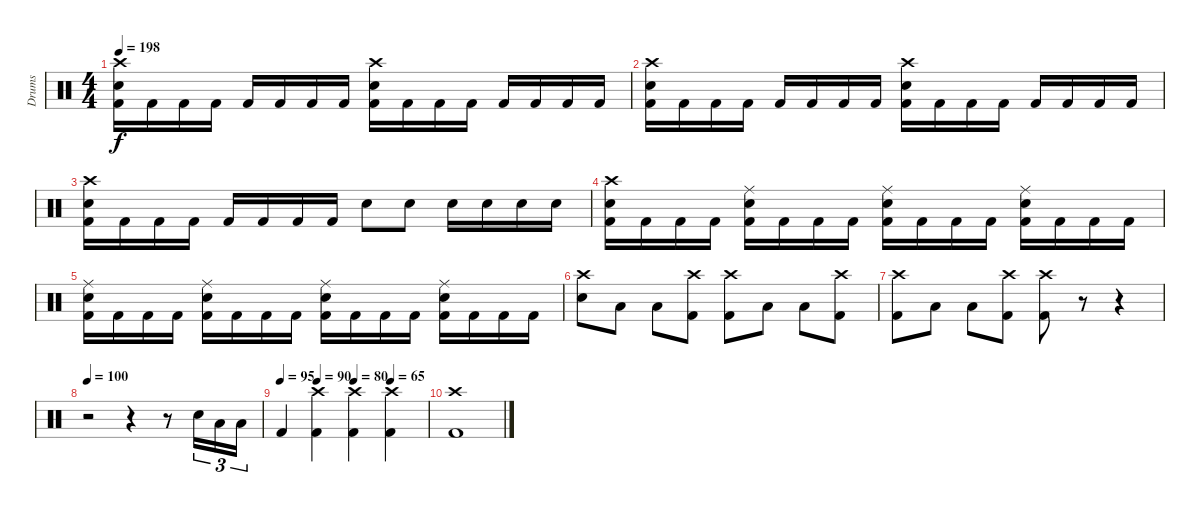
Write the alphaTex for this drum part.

\track ("Drums" "Drums") {instrument percussion}
\staff {score}
\articulation defaults
\ts (4 4)
\tempo 198
\clef neutral
\ks c
("Crash high (hit)" "Snare (hit) 2" "Kick (hit) 2").16{dy f} "Kick (hit) 2".16 "Kick (hit) 2".16 "Kick (hit) 2".16 "Kick (hit) 2".16 "Kick (hit) 2".16 "Kick (hit) 2".16 "Kick (hit) 2".16 ("Crash high (hit)" "Snare (hit) 2" "Kick (hit) 2").16 "Kick (hit) 2".16 "Kick (hit) 2".16 "Kick (hit) 2".16 "Kick (hit) 2".16 "Kick (hit) 2".16 "Kick (hit) 2".16 "Kick (hit) 2".16 |
("Crash high (hit)" "Snare (hit) 2" "Kick (hit) 2").16 "Kick (hit) 2".16 "Kick (hit) 2".16 "Kick (hit) 2".16 "Kick (hit) 2".16 "Kick (hit) 2".16 "Kick (hit) 2".16 "Kick (hit) 2".16 ("Crash high (hit)" "Snare (hit) 2" "Kick (hit) 2").16 "Kick (hit) 2".16 "Kick (hit) 2".16 "Kick (hit) 2".16 "Kick (hit) 2".16 "Kick (hit) 2".16 "Kick (hit) 2".16 "Kick (hit) 2".16 |
("Crash high (hit)" "Snare (hit) 2" "Kick (hit) 2").16 "Kick (hit) 2".16 "Kick (hit) 2".16 "Kick (hit) 2".16 "Kick (hit) 2".16 "Kick (hit) 2".16 "Kick (hit) 2".16 "Kick (hit) 2".16 "Snare (hit) 2".8 "Snare (hit) 2".8 "Snare (hit) 2".16 "Snare (hit) 2".16 "Snare (hit) 2".16 "Snare (hit) 2".16 |
("Crash high (hit)" "Snare (hit) 2" "Kick (hit) 2").16 "Kick (hit) 2".16 "Kick (hit) 2".16 "Kick (hit) 2".16 ("Ride (middle)" "Snare (hit) 2" "Kick (hit) 2").16 "Kick (hit) 2".16 "Kick (hit) 2".16 "Kick (hit) 2".16 ("Ride (middle)" "Snare (hit) 2" "Kick (hit) 2").16 "Kick (hit) 2".16 "Kick (hit) 2".16 "Kick (hit) 2".16 ("Ride (middle)" "Snare (hit) 2" "Kick (hit) 2").16 "Kick (hit) 2".16 "Kick (hit) 2".16 "Kick (hit) 2".16 |
("Ride (middle)" "Snare (hit) 2" "Kick (hit) 2").16 "Kick (hit) 2".16 "Kick (hit) 2".16 "Kick (hit) 2".16 ("Ride (middle)" "Snare (hit) 2" "Kick (hit) 2").16 "Kick (hit) 2".16 "Kick (hit) 2".16 "Kick (hit) 2".16 ("Ride (middle)" "Snare (hit) 2" "Kick (hit) 2").16 "Kick (hit) 2".16 "Kick (hit) 2".16 "Kick (hit) 2".16 ("Ride (middle)" "Snare (hit) 2" "Kick (hit) 2").16 "Kick (hit) 2".16 "Kick (hit) 2".16 "Kick (hit) 2".16 |
("Crash high (hit)" "Snare (hit) 2").8 "Low Tom (hit)".8 "Low Floor Tom (hit)".8 ("Crash high (hit)" "Kick (hit) 2").8 ("Crash high (hit)" "Kick (hit) 2").8 "Low Tom (hit)".8 "Low Floor Tom (hit)".8 ("Crash high (hit)" "Kick (hit) 2").8 |
("Crash high (hit)" "Kick (hit) 2").8 "Low Tom (hit)".8 "Low Floor Tom (hit)".8 ("Crash high (hit)" "Kick (hit) 2").8 ("Crash high (hit)" "Kick (hit) 2").8 r.8 r.4 |
\tempo 100
r.2 r.4 r.8 "Snare (hit) 2".16{tu (3 2)} "Low Tom (hit)".16{tu (3 2)} "Low Floor Tom (hit)".16{tu (3 2)} |
\tempo 95
\tempo (90 0.25)
\tempo (80 0.5)
\tempo (65 0.75)
"Kick (hit) 2".4 ("Crash high (hit)" "Kick (hit) 2").4 ("Crash high (hit)" "Kick (hit) 2").4 ("Crash high (hit)" "Kick (hit) 2").4 |
("Crash high (hit)" "Kick (hit) 2").1
